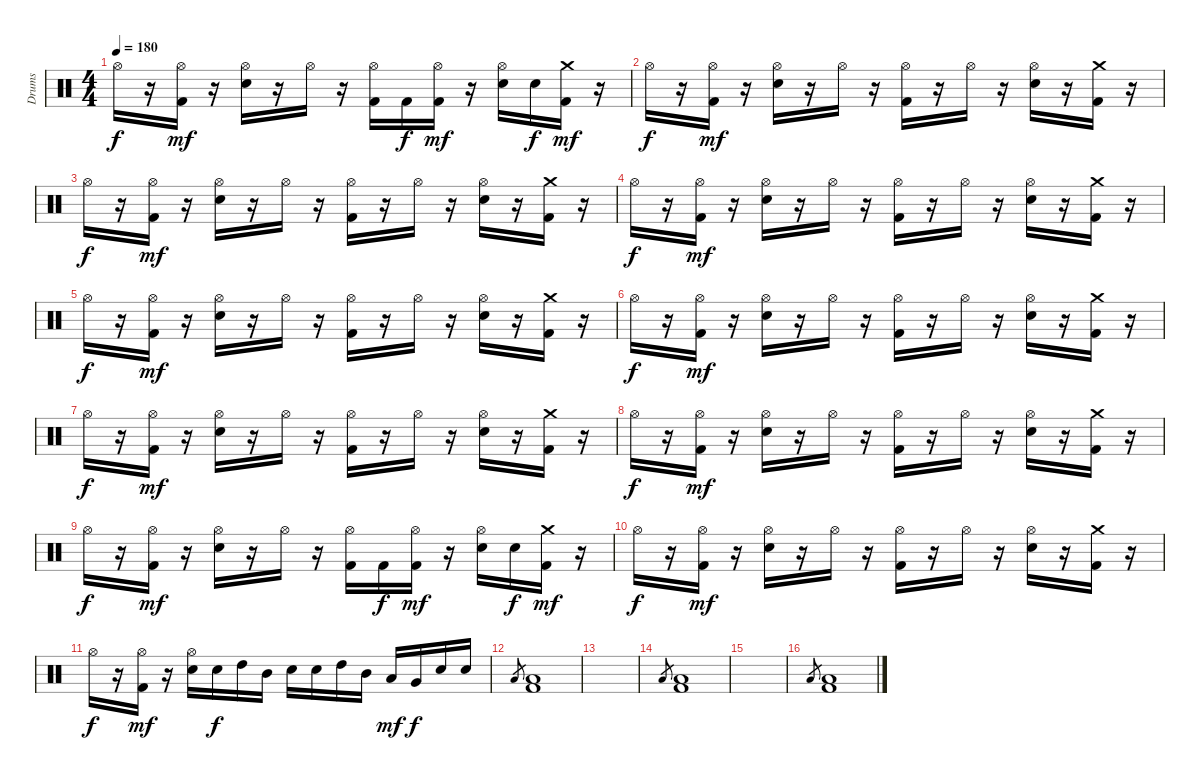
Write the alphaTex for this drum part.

\track ("Drums" "Drums") {instrument percussion}
\staff {score}
\articulation defaults
\ts (4 4)
\tempo 180
\clef neutral
\ks c "Hi-Hat (open)".16{dy f}
r.16 ("Hi-Hat (open)" "Kick (hit) 2").16{dy mf} r.16 ("Hi-Hat (open)" "Electric Snare (hit)").16 r.16 "Hi-Hat (open)".16 r.16 ("Hi-Hat (open)" "Kick (hit) 2").16 "Kick (hit) 2".16{dy f} ("Hi-Hat (open)" "Kick (hit) 2").16{dy mf} r.16 ("Hi-Hat (open)" "Electric Snare (hit)").16 "Electric Snare (hit)".16{dy f} ("Crash medium (hit)" "Kick (hit) 2").16{dy mf} r.16 |
"Hi-Hat (open)".16{dy f} r.16 ("Hi-Hat (open)" "Kick (hit) 2").16{dy mf} r.16 ("Hi-Hat (open)" "Electric Snare (hit)").16 r.16 "Hi-Hat (open)".16 r.16 ("Hi-Hat (open)" "Kick (hit) 2").16 r.16 "Hi-Hat (open)".16 r.16 ("Hi-Hat (open)" "Electric Snare (hit)").16 r.16 ("Crash medium (hit)" "Kick (hit) 2").16 r.16 |
"Hi-Hat (open)".16{dy f} r.16 ("Hi-Hat (open)" "Kick (hit) 2").16{dy mf} r.16 ("Hi-Hat (open)" "Electric Snare (hit)").16 r.16 "Hi-Hat (open)".16 r.16 ("Hi-Hat (open)" "Kick (hit) 2").16 r.16 "Hi-Hat (open)".16 r.16 ("Hi-Hat (open)" "Electric Snare (hit)").16 r.16 ("Crash medium (hit)" "Kick (hit) 2").16 r.16 |
"Hi-Hat (open)".16{dy f} r.16 ("Hi-Hat (open)" "Kick (hit) 2").16{dy mf} r.16 ("Hi-Hat (open)" "Electric Snare (hit)").16 r.16 "Hi-Hat (open)".16 r.16 ("Hi-Hat (open)" "Kick (hit) 2").16 r.16 "Hi-Hat (open)".16 r.16 ("Hi-Hat (open)" "Electric Snare (hit)").16 r.16 ("Crash medium (hit)" "Kick (hit) 2").16 r.16 |
"Hi-Hat (open)".16{dy f} r.16 ("Hi-Hat (open)" "Kick (hit) 2").16{dy mf} r.16 ("Hi-Hat (open)" "Electric Snare (hit)").16 r.16 "Hi-Hat (open)".16 r.16 ("Hi-Hat (open)" "Kick (hit) 2").16 r.16 "Hi-Hat (open)".16 r.16 ("Hi-Hat (open)" "Electric Snare (hit)").16 r.16 ("Crash medium (hit)" "Kick (hit) 2").16 r.16 |
"Hi-Hat (open)".16{dy f} r.16 ("Hi-Hat (open)" "Kick (hit) 2").16{dy mf} r.16 ("Hi-Hat (open)" "Electric Snare (hit)").16 r.16 "Hi-Hat (open)".16 r.16 ("Hi-Hat (open)" "Kick (hit) 2").16 r.16 "Hi-Hat (open)".16 r.16 ("Hi-Hat (open)" "Electric Snare (hit)").16 r.16 ("Crash medium (hit)" "Kick (hit) 2").16 r.16 |
"Hi-Hat (open)".16{dy f} r.16 ("Hi-Hat (open)" "Kick (hit) 2").16{dy mf} r.16 ("Hi-Hat (open)" "Electric Snare (hit)").16 r.16 "Hi-Hat (open)".16 r.16 ("Hi-Hat (open)" "Kick (hit) 2").16 r.16 "Hi-Hat (open)".16 r.16 ("Hi-Hat (open)" "Electric Snare (hit)").16 r.16 ("Crash medium (hit)" "Kick (hit) 2").16 r.16 |
"Hi-Hat (open)".16{dy f} r.16 ("Hi-Hat (open)" "Kick (hit) 2").16{dy mf} r.16 ("Hi-Hat (open)" "Electric Snare (hit)").16 r.16 "Hi-Hat (open)".16 r.16 ("Hi-Hat (open)" "Kick (hit) 2").16 r.16 "Hi-Hat (open)".16 r.16 ("Hi-Hat (open)" "Electric Snare (hit)").16 r.16 ("Crash medium (hit)" "Kick (hit) 2").16 r.16 |
"Hi-Hat (open)".16{dy f} r.16 ("Hi-Hat (open)" "Kick (hit) 2").16{dy mf} r.16 ("Hi-Hat (open)" "Electric Snare (hit)").16 r.16 "Hi-Hat (open)".16 r.16 ("Hi-Hat (open)" "Kick (hit) 2").16 "Kick (hit) 2".16{dy f} ("Hi-Hat (open)" "Kick (hit) 2").16{dy mf} r.16 ("Hi-Hat (open)" "Electric Snare (hit)").16 "Electric Snare (hit)".16{dy f} ("Crash medium (hit)" "Kick (hit) 2").16{dy mf} r.16 |
"Hi-Hat (open)".16{dy f} r.16 ("Hi-Hat (open)" "Kick (hit) 2").16{dy mf} r.16 ("Hi-Hat (open)" "Electric Snare (hit)").16 r.16 "Hi-Hat (open)".16 r.16 ("Hi-Hat (open)" "Kick (hit) 2").16 r.16 "Hi-Hat (open)".16 r.16 ("Hi-Hat (open)" "Electric Snare (hit)").16 r.16 ("Crash medium (hit)" "Kick (hit) 2").16 r.16 |
"Hi-Hat (open)".16{dy f} r.16 ("Hi-Hat (open)" "Kick (hit) 2").16{dy mf} r.16 ("Hi-Hat (open)" "Electric Snare (hit)").16 "Electric Snare (hit)".16{dy f} "High Tom (hit)".16 "Mid Tom (hit)".16 "Electric Snare (hit)".16 "Electric Snare (hit)".16 "High Tom (hit)".16 "Mid Tom (hit)".16 "Low Tom (hit)".16{dy mf} "Very Low Tom (hit)".16{dy f} "Electric Snare (hit)".16 "Electric Snare (hit)".16 |
"Low Floor Tom (hit)".8{gr} ("Low Floor Tom (hit)" "Kick (hit) 2").1 |
|
"Low Floor Tom (hit)".8{gr} ("Low Floor Tom (hit)" "Kick (hit) 2").1 |
|
"Low Floor Tom (hit)".8{gr} ("Low Floor Tom (hit)" "Kick (hit) 2").1
